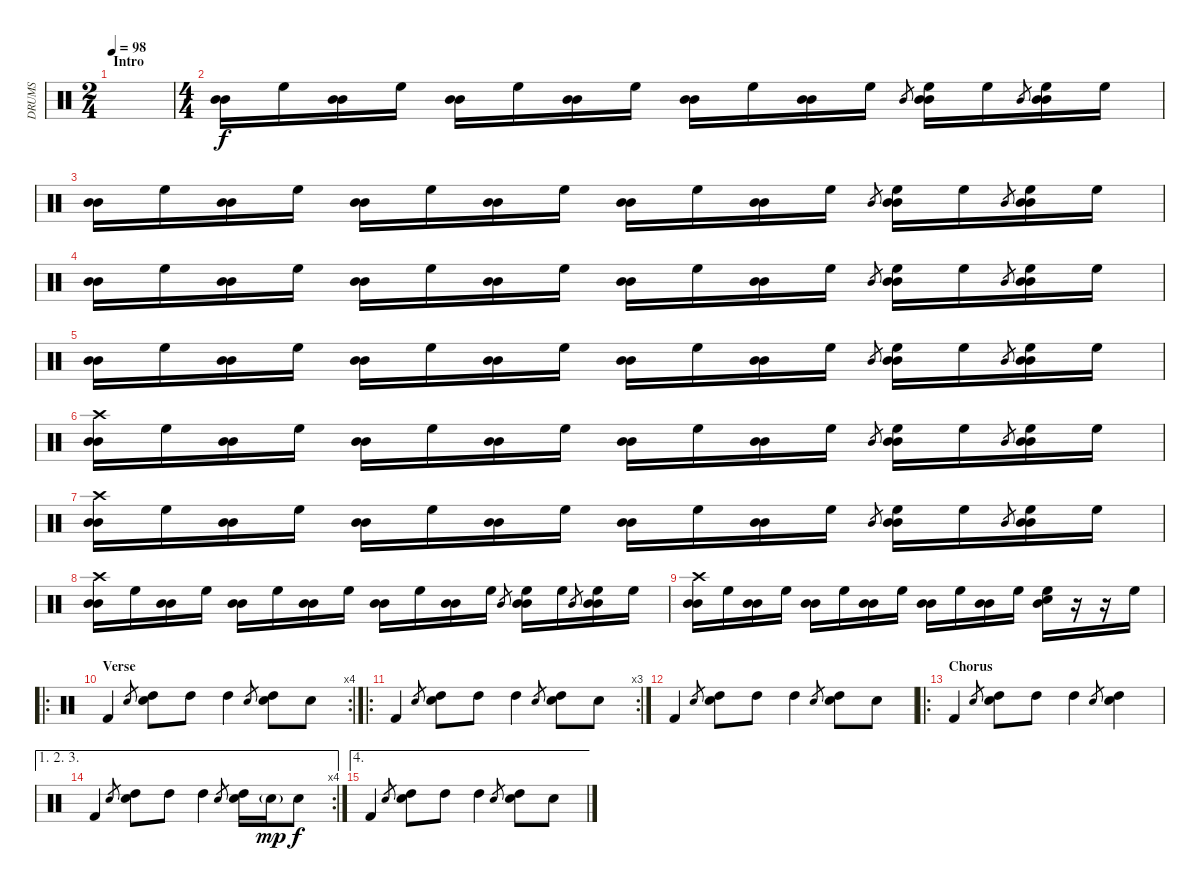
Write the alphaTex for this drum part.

\track ("DRUMS" "DRUMS") {instrument percussion}
\staff {score}
\articulation defaults
\ts (2 4)
\section ("" "Intro")
\tempo 98
\clef neutral
\ks c
|
\ts (4 4)
("Mid Tom (hit)" "Mid Tom (hit)").16 "High Floor Tom (hit)".16 ("Mid Tom (hit)" "Mid Tom (hit)").16 "High Floor Tom (hit)".16 ("Mid Tom (hit)" "Mid Tom (hit)").16 "High Floor Tom (hit)".16 ("Mid Tom (hit)" "Mid Tom (hit)").16 "High Floor Tom (hit)".16 ("Mid Tom (hit)" "Mid Tom (hit)").16 "High Floor Tom (hit)".16 ("Mid Tom (hit)" "Mid Tom (hit)").16 "High Floor Tom (hit)".16 "Mid Tom (hit)".8{gr} ("Mid Tom (hit)" "Mid Tom (hit)" "High Floor Tom (hit)").16 "High Floor Tom (hit)".16 "Mid Tom (hit)".8{gr} ("Mid Tom (hit)" "Mid Tom (hit)" "High Floor Tom (hit)").16 "High Floor Tom (hit)".16 |
("Mid Tom (hit)" "Mid Tom (hit)").16 "High Floor Tom (hit)".16 ("Mid Tom (hit)" "Mid Tom (hit)").16 "High Floor Tom (hit)".16 ("Mid Tom (hit)" "Mid Tom (hit)").16 "High Floor Tom (hit)".16 ("Mid Tom (hit)" "Mid Tom (hit)").16 "High Floor Tom (hit)".16 ("Mid Tom (hit)" "Mid Tom (hit)").16 "High Floor Tom (hit)".16 ("Mid Tom (hit)" "Mid Tom (hit)").16 "High Floor Tom (hit)".16 "Mid Tom (hit)".8{gr} ("Mid Tom (hit)" "Mid Tom (hit)" "High Floor Tom (hit)").16 "High Floor Tom (hit)".16 "Mid Tom (hit)".8{gr} ("Mid Tom (hit)" "Mid Tom (hit)" "High Floor Tom (hit)").16 "High Floor Tom (hit)".16 |
("Mid Tom (hit)" "Mid Tom (hit)").16 "High Floor Tom (hit)".16 ("Mid Tom (hit)" "Mid Tom (hit)").16 "High Floor Tom (hit)".16 ("Mid Tom (hit)" "Mid Tom (hit)").16 "High Floor Tom (hit)".16 ("Mid Tom (hit)" "Mid Tom (hit)").16 "High Floor Tom (hit)".16 ("Mid Tom (hit)" "Mid Tom (hit)").16 "High Floor Tom (hit)".16 ("Mid Tom (hit)" "Mid Tom (hit)").16 "High Floor Tom (hit)".16 "Mid Tom (hit)".8{gr} ("Mid Tom (hit)" "Mid Tom (hit)" "High Floor Tom (hit)").16 "High Floor Tom (hit)".16 "Mid Tom (hit)".8{gr} ("Mid Tom (hit)" "Mid Tom (hit)" "High Floor Tom (hit)").16 "High Floor Tom (hit)".16 |
("Mid Tom (hit)" "Mid Tom (hit)").16 "High Floor Tom (hit)".16 ("Mid Tom (hit)" "Mid Tom (hit)").16 "High Floor Tom (hit)".16 ("Mid Tom (hit)" "Mid Tom (hit)").16 "High Floor Tom (hit)".16 ("Mid Tom (hit)" "Mid Tom (hit)").16 "High Floor Tom (hit)".16 ("Mid Tom (hit)" "Mid Tom (hit)").16 "High Floor Tom (hit)".16 ("Mid Tom (hit)" "Mid Tom (hit)").16 "High Floor Tom (hit)".16 "Mid Tom (hit)".8{gr} ("Mid Tom (hit)" "Mid Tom (hit)" "High Floor Tom (hit)").16 "High Floor Tom (hit)".16 "Mid Tom (hit)".8{gr} ("Mid Tom (hit)" "Mid Tom (hit)" "High Floor Tom (hit)").16 "High Floor Tom (hit)".16 |
("Mid Tom (hit)" "Mid Tom (hit)" "Crash high (hit)").16 "High Floor Tom (hit)".16 ("Mid Tom (hit)" "Mid Tom (hit)").16 "High Floor Tom (hit)".16 ("Mid Tom (hit)" "Mid Tom (hit)").16 "High Floor Tom (hit)".16 ("Mid Tom (hit)" "Mid Tom (hit)").16 "High Floor Tom (hit)".16 ("Mid Tom (hit)" "Mid Tom (hit)").16 "High Floor Tom (hit)".16 ("Mid Tom (hit)" "Mid Tom (hit)").16 "High Floor Tom (hit)".16 "Mid Tom (hit)".8{gr} ("Mid Tom (hit)" "Mid Tom (hit)" "High Floor Tom (hit)").16 "High Floor Tom (hit)".16 "Mid Tom (hit)".8{gr} ("Mid Tom (hit)" "Mid Tom (hit)" "High Floor Tom (hit)").16 "High Floor Tom (hit)".16 |
("Mid Tom (hit)" "Mid Tom (hit)" "Crash high (hit)").16 "High Floor Tom (hit)".16 ("Mid Tom (hit)" "Mid Tom (hit)").16 "High Floor Tom (hit)".16 ("Mid Tom (hit)" "Mid Tom (hit)").16 "High Floor Tom (hit)".16 ("Mid Tom (hit)" "Mid Tom (hit)").16 "High Floor Tom (hit)".16 ("Mid Tom (hit)" "Mid Tom (hit)").16 "High Floor Tom (hit)".16 ("Mid Tom (hit)" "Mid Tom (hit)").16 "High Floor Tom (hit)".16 "Mid Tom (hit)".8{gr} ("Mid Tom (hit)" "Mid Tom (hit)" "High Floor Tom (hit)").16 "High Floor Tom (hit)".16 "Mid Tom (hit)".8{gr} ("Mid Tom (hit)" "Mid Tom (hit)" "High Floor Tom (hit)").16 "High Floor Tom (hit)".16 |
("Mid Tom (hit)" "Mid Tom (hit)" "Crash high (hit)").16 "High Floor Tom (hit)".16 ("Mid Tom (hit)" "Mid Tom (hit)").16 "High Floor Tom (hit)".16 ("Mid Tom (hit)" "Mid Tom (hit)").16 "High Floor Tom (hit)".16 ("Mid Tom (hit)" "Mid Tom (hit)").16 "High Floor Tom (hit)".16 ("Mid Tom (hit)" "Mid Tom (hit)").16 "High Floor Tom (hit)".16 ("Mid Tom (hit)" "Mid Tom (hit)").16 "High Floor Tom (hit)".16 "Mid Tom (hit)".8{gr} ("Mid Tom (hit)" "Mid Tom (hit)" "High Floor Tom (hit)").16 "High Floor Tom (hit)".16 "Mid Tom (hit)".8{gr} ("Mid Tom (hit)" "Mid Tom (hit)" "High Floor Tom (hit)").16 "High Floor Tom (hit)".16 |
("Mid Tom (hit)" "Mid Tom (hit)" "Crash high (hit)").16 "High Floor Tom (hit)".16 ("Mid Tom (hit)" "Mid Tom (hit)").16 "High Floor Tom (hit)".16 ("Mid Tom (hit)" "Mid Tom (hit)").16 "High Floor Tom (hit)".16 ("Mid Tom (hit)" "Mid Tom (hit)").16 "High Floor Tom (hit)".16 ("Mid Tom (hit)" "Mid Tom (hit)").16 "High Floor Tom (hit)".16 ("Mid Tom (hit)" "Mid Tom (hit)").16 "High Floor Tom (hit)".16 ("Mid Tom (hit)" "Electric Snare (hit)" "High Floor Tom (hit)").16 r.16 r.16 "High Floor Tom (hit)".16 |
\ro
\rc 4
\section ("" "Verse")
"Kick (hit) 2".4 "Electric Snare (hit)".8{gr} ("High Tom (hit)" "Electric Snare (hit)").8 "High Tom (hit)".8 "High Tom (hit)".4 "Electric Snare (hit)".8{gr} ("High Tom (hit)" "Electric Snare (hit)").8 "Electric Snare (hit)".8 |
\ro
\rc 3 "Kick (hit) 2".4 "Electric Snare (hit)".8{gr}
("High Tom (hit)" "Electric Snare (hit)").8 "High Tom (hit)".8 "High Tom (hit)".4 "Electric Snare (hit)".8{gr} ("High Tom (hit)" "Electric Snare (hit)").8 "Electric Snare (hit)".8 |
"Kick (hit) 2".4 "Electric Snare (hit)".8{gr} ("High Tom (hit)" "Electric Snare (hit)").8 "High Tom (hit)".8 "High Tom (hit)".4 "Electric Snare (hit)".8{gr} ("High Tom (hit)" "Electric Snare (hit)").8 "Electric Snare (hit)".8 |
\ro
\section ("" "Chorus")
"Kick (hit) 2".4 "Electric Snare (hit)".8{gr} ("High Tom (hit)" "Electric Snare (hit)").8 "High Tom (hit)".8 "High Tom (hit)".4 "Electric Snare (hit)".8{gr} ("High Tom (hit)" "Electric Snare (hit)").4 |
\ae (1 2 3)
\rc 4 "Kick (hit) 2".4 "Electric Snare (hit)".8{gr}
("High Tom (hit)" "Electric Snare (hit)").8 "High Tom (hit)".8 "High Tom (hit)".4 "Electric Snare (hit)".8{gr} ("High Tom (hit)" "Electric Snare (hit)").16 "Electric Snare (hit)"{g}.16{dy mp} "Electric Snare (hit)".8{dy f} |
\ae 4 "Kick (hit) 2".4 "Electric Snare (hit)".8{gr}
("High Tom (hit)" "Electric Snare (hit)").8 "High Tom (hit)".8 "High Tom (hit)".4 "Electric Snare (hit)".8{gr} ("High Tom (hit)" "Electric Snare (hit)").8 "Electric Snare (hit)".8
